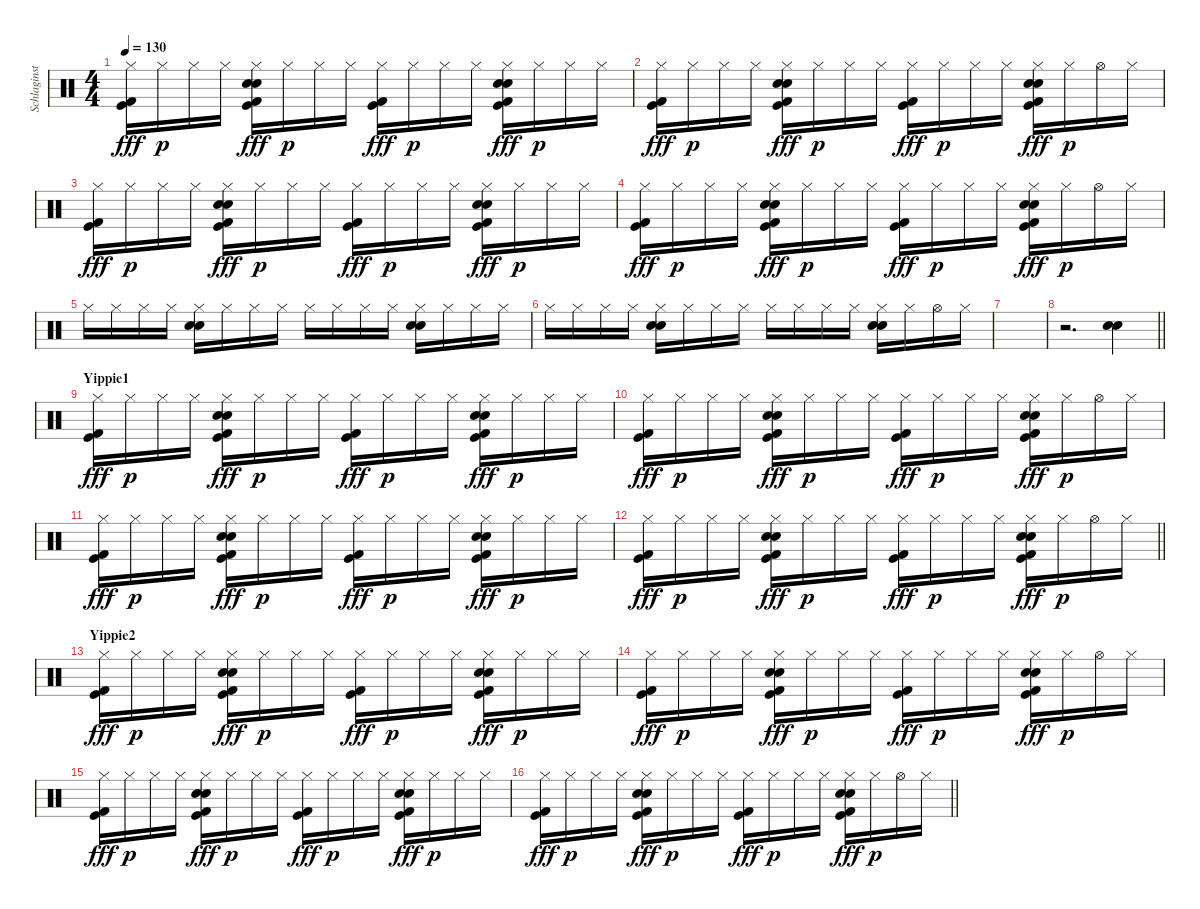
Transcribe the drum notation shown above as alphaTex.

\track ("Schlaginstrumente - Auswahl" "Schlaginst") {instrument percussion}
\staff {score}
\articulation defaults
\ts (4 4)
\tempo 130
\clef neutral
\ks c
("Hi-Hat (closed)" "Kick (hit) 2" "Kick (hit)").16{dy fff} "Hi-Hat (closed)".16{dy p} "Hi-Hat (closed)".16 "Hi-Hat (closed)".16 ("Electric Snare (hit)" "Hi-Hat (closed)" "Snare (hit) 2" "Kick (hit) 2" "Kick (hit)").16{dy fff} "Hi-Hat (closed)".16{dy p} "Hi-Hat (closed)".16 "Hi-Hat (closed)".16 ("Hi-Hat (closed)" "Kick (hit) 2" "Kick (hit)").16{dy fff} "Hi-Hat (closed)".16{dy p} "Hi-Hat (closed)".16 "Hi-Hat (closed)".16 ("Electric Snare (hit)" "Hi-Hat (closed)" "Snare (hit) 2" "Kick (hit) 2" "Kick (hit)").16{dy fff} "Hi-Hat (closed)".16{dy p} "Hi-Hat (closed)".16 "Hi-Hat (closed)".16 |
("Hi-Hat (closed)" "Kick (hit) 2" "Kick (hit)").16{dy fff} "Hi-Hat (closed)".16{dy p} "Hi-Hat (closed)".16 "Hi-Hat (closed)".16 ("Electric Snare (hit)" "Hi-Hat (closed)" "Snare (hit) 2" "Kick (hit) 2" "Kick (hit)").16{dy fff} "Hi-Hat (closed)".16{dy p} "Hi-Hat (closed)".16 "Hi-Hat (closed)".16 ("Hi-Hat (closed)" "Kick (hit) 2" "Kick (hit)").16{dy fff} "Hi-Hat (closed)".16{dy p} "Hi-Hat (closed)".16 "Hi-Hat (closed)".16 ("Electric Snare (hit)" "Hi-Hat (closed)" "Snare (hit) 2" "Kick (hit) 2" "Kick (hit)").16{dy fff} "Hi-Hat (closed)".16{dy p} "Hi-Hat (open)".16 "Hi-Hat (closed)".16 |
("Hi-Hat (closed)" "Kick (hit) 2" "Kick (hit)").16{dy fff} "Hi-Hat (closed)".16{dy p} "Hi-Hat (closed)".16 "Hi-Hat (closed)".16 ("Electric Snare (hit)" "Hi-Hat (closed)" "Snare (hit) 2" "Kick (hit) 2" "Kick (hit)").16{dy fff} "Hi-Hat (closed)".16{dy p} "Hi-Hat (closed)".16 "Hi-Hat (closed)".16 ("Hi-Hat (closed)" "Kick (hit) 2" "Kick (hit)").16{dy fff} "Hi-Hat (closed)".16{dy p} "Hi-Hat (closed)".16 "Hi-Hat (closed)".16 ("Electric Snare (hit)" "Hi-Hat (closed)" "Snare (hit) 2" "Kick (hit) 2" "Kick (hit)").16{dy fff} "Hi-Hat (closed)".16{dy p} "Hi-Hat (closed)".16 "Hi-Hat (closed)".16 |
("Hi-Hat (closed)" "Kick (hit) 2" "Kick (hit)").16{dy fff} "Hi-Hat (closed)".16{dy p} "Hi-Hat (closed)".16 "Hi-Hat (closed)".16 ("Electric Snare (hit)" "Hi-Hat (closed)" "Snare (hit) 2" "Kick (hit) 2" "Kick (hit)").16{dy fff} "Hi-Hat (closed)".16{dy p} "Hi-Hat (closed)".16 "Hi-Hat (closed)".16 ("Hi-Hat (closed)" "Kick (hit) 2" "Kick (hit)").16{dy fff} "Hi-Hat (closed)".16{dy p} "Hi-Hat (closed)".16 "Hi-Hat (closed)".16 ("Electric Snare (hit)" "Hi-Hat (closed)" "Snare (hit) 2" "Kick (hit) 2" "Kick (hit)").16{dy fff} "Hi-Hat (closed)".16{dy p} "Hi-Hat (open)".16 "Hi-Hat (closed)".16 |
"Hi-Hat (closed)".16 "Hi-Hat (closed)".16 "Hi-Hat (closed)".16 "Hi-Hat (closed)".16 ("Electric Snare (hit)" "Hi-Hat (closed)" "Snare (hit) 2").16 "Hi-Hat (closed)".16 "Hi-Hat (closed)".16 "Hi-Hat (closed)".16 "Hi-Hat (closed)".16 "Hi-Hat (closed)".16 "Hi-Hat (closed)".16 "Hi-Hat (closed)".16 ("Electric Snare (hit)" "Hi-Hat (closed)" "Snare (hit) 2").16 "Hi-Hat (closed)".16 "Hi-Hat (closed)".16 "Hi-Hat (closed)".16 |
"Hi-Hat (closed)".16 "Hi-Hat (closed)".16 "Hi-Hat (closed)".16 "Hi-Hat (closed)".16 ("Electric Snare (hit)" "Hi-Hat (closed)" "Snare (hit) 2").16 "Hi-Hat (closed)".16 "Hi-Hat (closed)".16 "Hi-Hat (closed)".16 "Hi-Hat (closed)".16 "Hi-Hat (closed)".16 "Hi-Hat (closed)".16 "Hi-Hat (closed)".16 ("Electric Snare (hit)" "Hi-Hat (closed)" "Snare (hit) 2").16 "Hi-Hat (closed)".16 "Hi-Hat (open)".16 "Hi-Hat (closed)".16 |
|
\barLineRight lightlight
r.2{d} ("Hand Clap (hit)" "Snare (hit) 2").4 |
\section ("" "Yippie1")
("Hi-Hat (closed)" "Kick (hit) 2" "Kick (hit)").16{dy fff} "Hi-Hat (closed)".16{dy p} "Hi-Hat (closed)".16 "Hi-Hat (closed)".16 ("Hand Clap (hit)" "Hi-Hat (closed)" "Snare (hit) 2" "Kick (hit) 2" "Kick (hit)").16{dy fff} "Hi-Hat (closed)".16{dy p} "Hi-Hat (closed)".16 "Hi-Hat (closed)".16 ("Hi-Hat (closed)" "Kick (hit) 2" "Kick (hit)").16{dy fff} "Hi-Hat (closed)".16{dy p} "Hi-Hat (closed)".16 "Hi-Hat (closed)".16 ("Hand Clap (hit)" "Hi-Hat (closed)" "Snare (hit) 2" "Kick (hit) 2" "Kick (hit)").16{dy fff} "Hi-Hat (closed)".16{dy p} "Hi-Hat (closed)".16 "Hi-Hat (closed)".16 |
("Hi-Hat (closed)" "Kick (hit) 2" "Kick (hit)").16{dy fff} "Hi-Hat (closed)".16{dy p} "Hi-Hat (closed)".16 "Hi-Hat (closed)".16 ("Hand Clap (hit)" "Hi-Hat (closed)" "Snare (hit) 2" "Kick (hit) 2" "Kick (hit)").16{dy fff} "Hi-Hat (closed)".16{dy p} "Hi-Hat (closed)".16 "Hi-Hat (closed)".16 ("Hi-Hat (closed)" "Kick (hit) 2" "Kick (hit)").16{dy fff} "Hi-Hat (closed)".16{dy p} "Hi-Hat (closed)".16 "Hi-Hat (closed)".16 ("Hand Clap (hit)" "Hi-Hat (closed)" "Snare (hit) 2" "Kick (hit) 2" "Kick (hit)").16{dy fff} "Hi-Hat (closed)".16{dy p} "Hi-Hat (open)".16 "Hi-Hat (closed)".16 |
("Hi-Hat (closed)" "Kick (hit) 2" "Kick (hit)").16{dy fff} "Hi-Hat (closed)".16{dy p} "Hi-Hat (closed)".16 "Hi-Hat (closed)".16 ("Hand Clap (hit)" "Hi-Hat (closed)" "Snare (hit) 2" "Kick (hit) 2" "Kick (hit)").16{dy fff} "Hi-Hat (closed)".16{dy p} "Hi-Hat (closed)".16 "Hi-Hat (closed)".16 ("Hi-Hat (closed)" "Kick (hit) 2" "Kick (hit)").16{dy fff} "Hi-Hat (closed)".16{dy p} "Hi-Hat (closed)".16 "Hi-Hat (closed)".16 ("Hand Clap (hit)" "Hi-Hat (closed)" "Snare (hit) 2" "Kick (hit) 2" "Kick (hit)").16{dy fff} "Hi-Hat (closed)".16{dy p} "Hi-Hat (closed)".16 "Hi-Hat (closed)".16 |
\barLineRight lightlight
("Hi-Hat (closed)" "Kick (hit) 2" "Kick (hit)").16{dy fff} "Hi-Hat (closed)".16{dy p} "Hi-Hat (closed)".16 "Hi-Hat (closed)".16 ("Hand Clap (hit)" "Hi-Hat (closed)" "Snare (hit) 2" "Kick (hit) 2" "Kick (hit)").16{dy fff} "Hi-Hat (closed)".16{dy p} "Hi-Hat (closed)".16 "Hi-Hat (closed)".16 ("Hi-Hat (closed)" "Kick (hit) 2" "Kick (hit)").16{dy fff} "Hi-Hat (closed)".16{dy p} "Hi-Hat (closed)".16 "Hi-Hat (closed)".16 ("Hand Clap (hit)" "Hi-Hat (closed)" "Snare (hit) 2" "Kick (hit) 2" "Kick (hit)").16{dy fff} "Hi-Hat (closed)".16{dy p} "Hi-Hat (open)".16 "Hi-Hat (closed)".16 |
\section ("" "Yippie2")
("Hi-Hat (closed)" "Kick (hit) 2" "Kick (hit)").16{dy fff} "Hi-Hat (closed)".16{dy p} "Hi-Hat (closed)".16 "Hi-Hat (closed)".16 ("Hand Clap (hit)" "Hi-Hat (closed)" "Snare (hit) 2" "Kick (hit) 2" "Kick (hit)").16{dy fff} "Hi-Hat (closed)".16{dy p} "Hi-Hat (closed)".16 "Hi-Hat (closed)".16 ("Hi-Hat (closed)" "Kick (hit) 2" "Kick (hit)").16{dy fff} "Hi-Hat (closed)".16{dy p} "Hi-Hat (closed)".16 "Hi-Hat (closed)".16 ("Hand Clap (hit)" "Hi-Hat (closed)" "Snare (hit) 2" "Kick (hit) 2" "Kick (hit)").16{dy fff} "Hi-Hat (closed)".16{dy p} "Hi-Hat (closed)".16 "Hi-Hat (closed)".16 |
("Hi-Hat (closed)" "Kick (hit) 2" "Kick (hit)").16{dy fff} "Hi-Hat (closed)".16{dy p} "Hi-Hat (closed)".16 "Hi-Hat (closed)".16 ("Hand Clap (hit)" "Hi-Hat (closed)" "Snare (hit) 2" "Kick (hit) 2" "Kick (hit)").16{dy fff} "Hi-Hat (closed)".16{dy p} "Hi-Hat (closed)".16 "Hi-Hat (closed)".16 ("Hi-Hat (closed)" "Kick (hit) 2" "Kick (hit)").16{dy fff} "Hi-Hat (closed)".16{dy p} "Hi-Hat (closed)".16 "Hi-Hat (closed)".16 ("Hand Clap (hit)" "Hi-Hat (closed)" "Snare (hit) 2" "Kick (hit) 2" "Kick (hit)").16{dy fff} "Hi-Hat (closed)".16{dy p} "Hi-Hat (open)".16 "Hi-Hat (closed)".16 |
("Hi-Hat (closed)" "Kick (hit) 2" "Kick (hit)").16{dy fff} "Hi-Hat (closed)".16{dy p} "Hi-Hat (closed)".16 "Hi-Hat (closed)".16 ("Hand Clap (hit)" "Hi-Hat (closed)" "Snare (hit) 2" "Kick (hit) 2" "Kick (hit)").16{dy fff} "Hi-Hat (closed)".16{dy p} "Hi-Hat (closed)".16 "Hi-Hat (closed)".16 ("Hi-Hat (closed)" "Kick (hit) 2" "Kick (hit)").16{dy fff} "Hi-Hat (closed)".16{dy p} "Hi-Hat (closed)".16 "Hi-Hat (closed)".16 ("Hand Clap (hit)" "Hi-Hat (closed)" "Snare (hit) 2" "Kick (hit) 2" "Kick (hit)").16{dy fff} "Hi-Hat (closed)".16{dy p} "Hi-Hat (closed)".16 "Hi-Hat (closed)".16 |
\barLineRight lightlight
("Hi-Hat (closed)" "Kick (hit) 2" "Kick (hit)").16{dy fff} "Hi-Hat (closed)".16{dy p} "Hi-Hat (closed)".16 "Hi-Hat (closed)".16 ("Hand Clap (hit)" "Hi-Hat (closed)" "Snare (hit) 2" "Kick (hit) 2" "Kick (hit)").16{dy fff} "Hi-Hat (closed)".16{dy p} "Hi-Hat (closed)".16 "Hi-Hat (closed)".16 ("Hi-Hat (closed)" "Kick (hit) 2" "Kick (hit)").16{dy fff} "Hi-Hat (closed)".16{dy p} "Hi-Hat (closed)".16 "Hi-Hat (closed)".16 ("Hand Clap (hit)" "Hi-Hat (closed)" "Snare (hit) 2" "Kick (hit) 2" "Kick (hit)").16{dy fff} "Hi-Hat (closed)".16{dy p} "Hi-Hat (open)".16 "Hi-Hat (closed)".16
